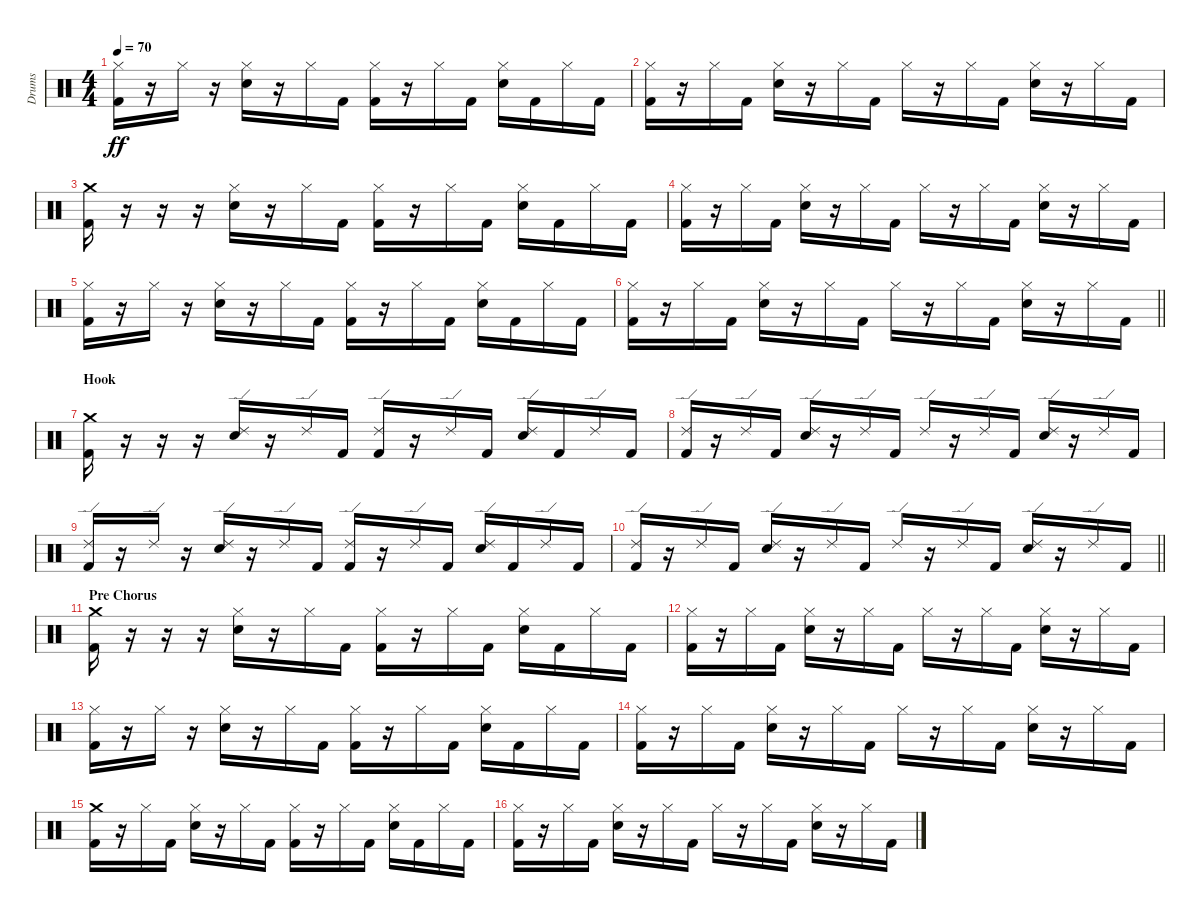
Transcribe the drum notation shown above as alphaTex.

\track ("Drums" "Drums") {instrument percussion}
\staff {score}
\articulation defaults
\ts (4 4)
\tempo 70
\clef neutral
\ks c
("Hi-Hat (closed)" "Kick (hit) 2").16{dy ff} r.16 "Hi-Hat (closed)".16 r.16 ("Hi-Hat (closed)" "Snare (hit) 2").16 r.16 "Hi-Hat (closed)".16 "Kick (hit) 2".16 ("Hi-Hat (closed)" "Kick (hit) 2").16 r.16 "Hi-Hat (closed)".16 "Kick (hit) 2".16 ("Hi-Hat (closed)" "Snare (hit) 2").16 "Kick (hit) 2".16 "Hi-Hat (closed)".16 "Kick (hit) 2".16 |
("Hi-Hat (closed)" "Kick (hit) 2").16 r.16 "Hi-Hat (closed)".16 "Kick (hit) 2".16 ("Hi-Hat (closed)" "Snare (hit) 2").16 r.16 "Hi-Hat (closed)".16 "Kick (hit) 2".16 "Hi-Hat (closed)".16 r.16 "Hi-Hat (closed)".16 "Kick (hit) 2".16 ("Hi-Hat (closed)" "Snare (hit) 2").16 r.16 "Hi-Hat (closed)".16 "Kick (hit) 2".16 |
("Crash medium (hit)" "Kick (hit) 2").16 r.16 r.16 r.16 ("Hi-Hat (closed)" "Snare (hit) 2").16 r.16 "Hi-Hat (closed)".16 "Kick (hit) 2".16 ("Hi-Hat (closed)" "Kick (hit) 2").16 r.16 "Hi-Hat (closed)".16 "Kick (hit) 2".16 ("Hi-Hat (closed)" "Snare (hit) 2").16 "Kick (hit) 2".16 "Hi-Hat (closed)".16 "Kick (hit) 2".16 |
("Hi-Hat (closed)" "Kick (hit) 2").16 r.16 "Hi-Hat (closed)".16 "Kick (hit) 2".16 ("Hi-Hat (closed)" "Snare (hit) 2").16 r.16 "Hi-Hat (closed)".16 "Kick (hit) 2".16 "Hi-Hat (closed)".16 r.16 "Hi-Hat (closed)".16 "Kick (hit) 2".16 ("Hi-Hat (closed)" "Snare (hit) 2").16 r.16 "Hi-Hat (closed)".16 "Kick (hit) 2".16 |
("Hi-Hat (closed)" "Kick (hit) 2").16 r.16 "Hi-Hat (closed)".16 r.16 ("Hi-Hat (closed)" "Snare (hit) 2").16 r.16 "Hi-Hat (closed)".16 "Kick (hit) 2".16 ("Hi-Hat (closed)" "Kick (hit) 2").16 r.16 "Hi-Hat (closed)".16 "Kick (hit) 2".16 ("Hi-Hat (closed)" "Snare (hit) 2").16 "Kick (hit) 2".16 "Hi-Hat (closed)".16 "Kick (hit) 2".16 |
\barLineRight lightlight
("Hi-Hat (closed)" "Kick (hit) 2").16 r.16 "Hi-Hat (closed)".16 "Kick (hit) 2".16 ("Hi-Hat (closed)" "Snare (hit) 2").16 r.16 "Hi-Hat (closed)".16 "Kick (hit) 2".16 "Hi-Hat (closed)".16 r.16 "Hi-Hat (closed)".16 "Kick (hit) 2".16 ("Hi-Hat (closed)" "Snare (hit) 2").16 r.16 "Hi-Hat (closed)".16 "Kick (hit) 2".16 |
\section ("" "Hook")
("Crash medium (hit)" "Kick (hit) 2").16 r.16 r.16 r.16 ("Ride (edge) 2" "Snare (hit) 2").16 r.16 "Ride (edge) 2".16 "Kick (hit) 2".16 ("Ride (edge) 2" "Kick (hit) 2").16 r.16 "Ride (edge) 2".16 "Kick (hit) 2".16 ("Ride (edge) 2" "Snare (hit) 2").16 "Kick (hit) 2".16 "Ride (edge) 2".16 "Kick (hit) 2".16 |
("Ride (edge) 2" "Kick (hit) 2").16 r.16 "Ride (edge) 2".16 "Kick (hit) 2".16 ("Ride (edge) 2" "Snare (hit) 2").16 r.16 "Ride (edge) 2".16 "Kick (hit) 2".16 "Ride (edge) 2".16 r.16 "Ride (edge) 2".16 "Kick (hit) 2".16 ("Ride (edge) 2" "Snare (hit) 2").16 r.16 "Ride (edge) 2".16 "Kick (hit) 2".16 |
("Ride (edge) 2" "Kick (hit) 2").16 r.16 "Ride (edge) 2".16 r.16 ("Ride (edge) 2" "Snare (hit) 2").16 r.16 "Ride (edge) 2".16 "Kick (hit) 2".16 ("Ride (edge) 2" "Kick (hit) 2").16 r.16 "Ride (edge) 2".16 "Kick (hit) 2".16 ("Ride (edge) 2" "Snare (hit) 2").16 "Kick (hit) 2".16 "Ride (edge) 2".16 "Kick (hit) 2".16 |
\barLineRight lightlight
("Ride (edge) 2" "Kick (hit) 2").16 r.16 "Ride (edge) 2".16 "Kick (hit) 2".16 ("Ride (edge) 2" "Snare (hit) 2").16 r.16 "Ride (edge) 2".16 "Kick (hit) 2".16 "Ride (edge) 2".16 r.16 "Ride (edge) 2".16 "Kick (hit) 2".16 ("Ride (edge) 2" "Snare (hit) 2").16 r.16 "Ride (edge) 2".16 "Kick (hit) 2".16 |
\section ("" "Pre Chorus")
("Crash medium (hit)" "Kick (hit) 2").16 r.16 r.16 r.16 ("Hi-Hat (closed)" "Snare (hit) 2").16 r.16 "Hi-Hat (closed)".16 "Kick (hit) 2".16 ("Hi-Hat (closed)" "Kick (hit) 2").16 r.16 "Hi-Hat (closed)".16 "Kick (hit) 2".16 ("Hi-Hat (closed)" "Snare (hit) 2").16 "Kick (hit) 2".16 "Hi-Hat (closed)".16 "Kick (hit) 2".16 |
("Hi-Hat (closed)" "Kick (hit) 2").16 r.16 "Hi-Hat (closed)".16 "Kick (hit) 2".16 ("Hi-Hat (closed)" "Snare (hit) 2").16 r.16 "Hi-Hat (closed)".16 "Kick (hit) 2".16 "Hi-Hat (closed)".16 r.16 "Hi-Hat (closed)".16 "Kick (hit) 2".16 ("Hi-Hat (closed)" "Snare (hit) 2").16 r.16 "Hi-Hat (closed)".16 "Kick (hit) 2".16 |
("Hi-Hat (closed)" "Kick (hit) 2").16 r.16 "Hi-Hat (closed)".16 r.16 ("Hi-Hat (closed)" "Snare (hit) 2").16 r.16 "Hi-Hat (closed)".16 "Kick (hit) 2".16 ("Hi-Hat (closed)" "Kick (hit) 2").16 r.16 "Hi-Hat (closed)".16 "Kick (hit) 2".16 ("Hi-Hat (closed)" "Snare (hit) 2").16 "Kick (hit) 2".16 "Hi-Hat (closed)".16 "Kick (hit) 2".16 |
("Hi-Hat (closed)" "Kick (hit) 2").16 r.16 "Hi-Hat (closed)".16 "Kick (hit) 2".16 ("Hi-Hat (closed)" "Snare (hit) 2").16 r.16 "Hi-Hat (closed)".16 "Kick (hit) 2".16 "Hi-Hat (closed)".16 r.16 "Hi-Hat (closed)".16 "Kick (hit) 2".16 ("Hi-Hat (closed)" "Snare (hit) 2").16 r.16 "Hi-Hat (closed)".16 "Kick (hit) 2".16 |
("Crash medium (hit)" "Kick (hit) 2").16 r.16 "Hi-Hat (closed)".16 "Kick (hit) 2".16 ("Hi-Hat (closed)" "Snare (hit) 2").16 r.16 "Hi-Hat (closed)".16 "Kick (hit) 2".16 ("Hi-Hat (closed)" "Kick (hit) 2").16 r.16 "Hi-Hat (closed)".16 "Kick (hit) 2".16 ("Hi-Hat (closed)" "Snare (hit) 2").16 "Kick (hit) 2".16 "Hi-Hat (closed)".16 "Kick (hit) 2".16 |
("Hi-Hat (closed)" "Kick (hit) 2").16 r.16 "Hi-Hat (closed)".16 "Kick (hit) 2".16 ("Hi-Hat (closed)" "Snare (hit) 2").16 r.16 "Hi-Hat (closed)".16 "Kick (hit) 2".16 "Hi-Hat (closed)".16 r.16 "Hi-Hat (closed)".16 "Kick (hit) 2".16 ("Hi-Hat (closed)" "Snare (hit) 2").16 r.16 "Hi-Hat (closed)".16 "Kick (hit) 2".16
